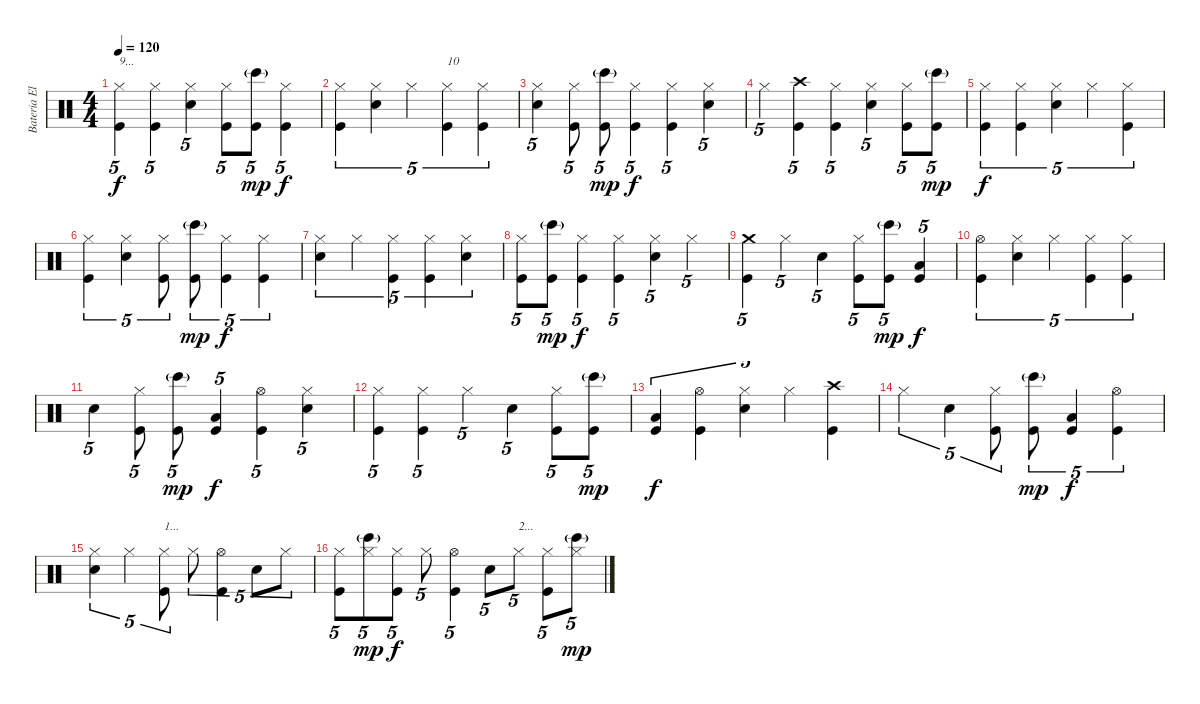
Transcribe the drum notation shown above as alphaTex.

\track ("Bateria Eletrônica" "Bateria El") {instrument percussion}
\staff {score}
\articulation defaults
\ts (4 4)
\tempo 120
\clef neutral
\ks c
("Kick (hit)" "Hi-Hat (closed)").4{tu (5 4) txt "9..." dy f} ("Kick (hit)" "Hi-Hat (closed)").4{tu (5 4)} ("Snare (hit) 2" "Hi-Hat (closed)").4{tu (5 4)} ("Kick (hit)" "Hi-Hat (closed)").8{tu (5 4)} ("Kick (hit)" "Bongo High (hit)"{g}).8{tu (5 4) dy mp} ("Kick (hit)" "Hi-Hat (closed)").4{tu (5 4) dy f} |
("Kick (hit)" "Hi-Hat (closed)").4{tu (5 4)} ("Snare (hit) 2" "Hi-Hat (closed)").4{tu (5 4)} "Hi-Hat (closed)".4{tu (5 4)} ("Kick (hit)" "Hi-Hat (closed)").4{tu (5 4) txt "10"} ("Kick (hit)" "Hi-Hat (closed)").4{tu (5 4)} |
("Snare (hit) 2" "Hi-Hat (closed)").4{tu (5 4)} ("Kick (hit)" "Hi-Hat (closed)").8{tu (5 4)} ("Kick (hit)" "Bongo High (hit)"{g}).8{tu (5 4) dy mp} ("Kick (hit)" "Hi-Hat (closed)").4{tu (5 4) dy f} ("Kick (hit)" "Hi-Hat (closed)").4{tu (5 4)} ("Snare (hit) 2" "Hi-Hat (closed)").4{tu (5 4)} |
"Hi-Hat (closed)".4{tu (5 4)} ("Kick (hit)" "Crash high (hit)").4{tu (5 4)} ("Kick (hit)" "Hi-Hat (closed)").4{tu (5 4)} ("Snare (hit) 2" "Hi-Hat (closed)").4{tu (5 4)} ("Kick (hit)" "Hi-Hat (closed)").8{tu (5 4)} ("Kick (hit)" "Bongo High (hit)"{g}).8{tu (5 4) dy mp} |
("Kick (hit)" "Hi-Hat (closed)").4{tu (5 4) dy f} ("Kick (hit)" "Hi-Hat (closed)").4{tu (5 4)} ("Snare (hit) 2" "Hi-Hat (closed)").4{tu (5 4)} "Hi-Hat (closed)".4{tu (5 4)} ("Kick (hit)" "Hi-Hat (closed)").4{tu (5 4)} |
("Kick (hit)" "Hi-Hat (closed)").4{tu (5 4)} ("Snare (hit) 2" "Hi-Hat (closed)").4{tu (5 4)} ("Kick (hit)" "Hi-Hat (closed)").8{tu (5 4)} ("Kick (hit)" "Bongo High (hit)"{g}).8{tu (5 4) dy mp} ("Kick (hit)" "Hi-Hat (closed)").4{tu (5 4) dy f} ("Kick (hit)" "Hi-Hat (closed)").4{tu (5 4)} |
("Snare (hit) 2" "Hi-Hat (closed)").4{tu (5 4)} "Hi-Hat (closed)".4{tu (5 4)} ("Kick (hit)" "Hi-Hat (closed)").4{tu (5 4)} ("Kick (hit)" "Hi-Hat (closed)").4{tu (5 4)} ("Snare (hit) 2" "Hi-Hat (closed)").4{tu (5 4)} |
("Kick (hit)" "Hi-Hat (closed)").8{tu (5 4)} ("Kick (hit)" "Bongo High (hit)"{g}).8{tu (5 4) dy mp} ("Kick (hit)" "Hi-Hat (closed)").4{tu (5 4) dy f} ("Kick (hit)" "Hi-Hat (closed)").4{tu (5 4)} ("Snare (hit) 2" "Hi-Hat (closed)").4{tu (5 4)} "Hi-Hat (closed)".4{tu (5 4)} |
("Kick (hit)" "Crash medium (hit)").4{tu (5 4)} "Hi-Hat (closed)".4{tu (5 4)} "Snare (hit) 2".4{tu (5 4)} ("Kick (hit)" "Hi-Hat (closed)").8{tu (5 4)} ("Kick (hit)" "Bongo High (hit)"{g}).8{tu (5 4) dy mp} ("Kick (hit)" "Low Tom (hit)").4{tu (5 4) dy f} |
("Kick (hit)" "Hi-Hat (open)").4{tu (5 4)} ("Snare (hit) 2" "Hi-Hat (closed)").4{tu (5 4)} "Hi-Hat (closed)".4{tu (5 4)} ("Kick (hit)" "Hi-Hat (closed)").4{tu (5 4)} ("Kick (hit)" "Hi-Hat (closed)").4{tu (5 4)} |
"Snare (hit) 2".4{tu (5 4)} ("Kick (hit)" "Hi-Hat (closed)").8{tu (5 4)} ("Kick (hit)" "Bongo High (hit)"{g}).8{tu (5 4) dy mp} ("Kick (hit)" "Low Tom (hit)").4{tu (5 4) dy f} ("Kick (hit)" "Hi-Hat (open)").4{tu (5 4)} ("Snare (hit) 2" "Hi-Hat (closed)").4{tu (5 4)} |
("Kick (hit)" "Hi-Hat (closed)").4{tu (5 4)} ("Kick (hit)" "Hi-Hat (closed)").4{tu (5 4)} "Hi-Hat (closed)".4{tu (5 4)} "Snare (hit) 2".4{tu (5 4)} ("Kick (hit)" "Hi-Hat (closed)").8{tu (5 4)} ("Kick (hit)" "Bongo High (hit)"{g}).8{tu (5 4) dy mp} |
("Kick (hit)" "Low Tom (hit)").4{tu (5 4) dy f} ("Kick (hit)" "Hi-Hat (open)").4{tu (5 4)} ("Snare (hit) 2" "Hi-Hat (closed)").4{tu (5 4)} "Hi-Hat (closed)".4{tu (5 4)} ("Kick (hit)" "Crash high (hit)").4{tu (5 4)} |
"Hi-Hat (closed)".4{tu (5 4)} "Snare (hit) 2".4{tu (5 4)} ("Kick (hit)" "Hi-Hat (closed)").8{tu (5 4)} ("Kick (hit)" "Bongo High (hit)"{g}).8{tu (5 4) dy mp} ("Kick (hit)" "Low Tom (hit)").4{tu (5 4) dy f} ("Kick (hit)" "Hi-Hat (open)").4{tu (5 4)} |
("Snare (hit) 2" "Hi-Hat (closed)").4{tu (5 4)} "Hi-Hat (closed)".4{tu (5 4)} ("Kick (hit)" "Hi-Hat (closed)").8{tu (5 4) txt "1..."} "Hi-Hat (closed)".8{tu (5 4)} ("Kick (hit)" "Hi-Hat (open)").4{tu (5 4)} "Snare (hit) 2".8{tu (5 4)} "Hi-Hat (closed)".8{tu (5 4)} |
("Kick (hit)" "Hi-Hat (closed)").8{tu (5 4)} ("Bongo High (hit)"{g} "Hi-Hat (closed)").8{tu (5 4) dy mp} ("Kick (hit)" "Hi-Hat (closed)").8{tu (5 4) dy f} "Hi-Hat (closed)".8{tu (5 4)} ("Kick (hit)" "Hi-Hat (open)").4{tu (5 4)} "Snare (hit) 2".8{tu (5 4)} "Hi-Hat (closed)".8{tu (5 4) txt "2..."} ("Kick (hit)" "Hi-Hat (closed)").8{tu (5 4)} ("Bongo High (hit)"{g} "Hi-Hat (closed)").8{tu (5 4) dy mp}
